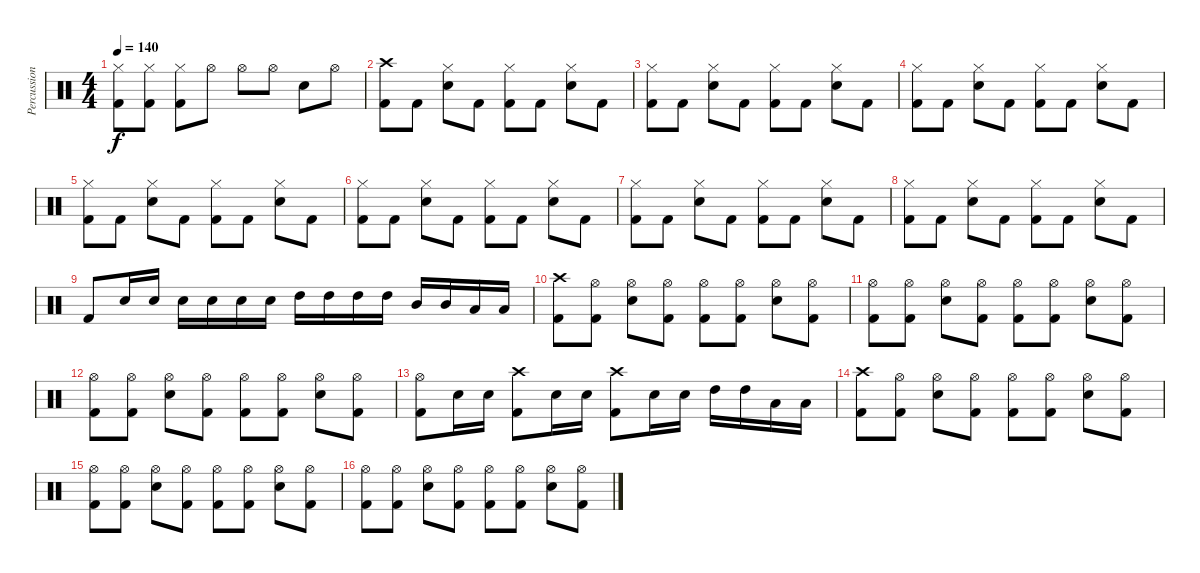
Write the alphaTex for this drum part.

\track ("Percussion" "Percussion") {instrument percussion}
\staff {score}
\articulation defaults
\ts (4 4)
\tempo 140
\clef neutral
\ks c
("Hi-Hat (closed)" "Kick (hit) 2").8{dy f} ("Hi-Hat (closed)" "Kick (hit) 2").8 ("Hi-Hat (closed)" "Kick (hit) 2").8 "Hi-Hat (open)".8 "Hi-Hat (open)".8 "Hi-Hat (open)".8 "Electric Snare (hit)".8 "Hi-Hat (open)".8 |
("Crash high (hit)" "Kick (hit) 2").8 "Kick (hit) 2".8 ("Hi-Hat (closed)" "Electric Snare (hit)").8 "Kick (hit) 2".8 ("Hi-Hat (closed)" "Kick (hit) 2").8 "Kick (hit) 2".8 ("Hi-Hat (closed)" "Electric Snare (hit)").8 "Kick (hit) 2".8 |
("Hi-Hat (closed)" "Kick (hit) 2").8 "Kick (hit) 2".8 ("Hi-Hat (closed)" "Electric Snare (hit)").8 "Kick (hit) 2".8 ("Hi-Hat (closed)" "Kick (hit) 2").8 "Kick (hit) 2".8 ("Hi-Hat (closed)" "Electric Snare (hit)").8 "Kick (hit) 2".8 |
("Hi-Hat (closed)" "Kick (hit) 2").8 "Kick (hit) 2".8 ("Hi-Hat (closed)" "Electric Snare (hit)").8 "Kick (hit) 2".8 ("Hi-Hat (closed)" "Kick (hit) 2").8 "Kick (hit) 2".8 ("Hi-Hat (closed)" "Electric Snare (hit)").8 "Kick (hit) 2".8 |
("Hi-Hat (closed)" "Kick (hit) 2").8 "Kick (hit) 2".8 ("Hi-Hat (closed)" "Electric Snare (hit)").8 "Kick (hit) 2".8 ("Hi-Hat (closed)" "Kick (hit) 2").8 "Kick (hit) 2".8 ("Hi-Hat (closed)" "Electric Snare (hit)").8 "Kick (hit) 2".8 |
("Hi-Hat (closed)" "Kick (hit) 2").8 "Kick (hit) 2".8 ("Hi-Hat (closed)" "Electric Snare (hit)").8 "Kick (hit) 2".8 ("Hi-Hat (closed)" "Kick (hit) 2").8 "Kick (hit) 2".8 ("Hi-Hat (closed)" "Electric Snare (hit)").8 "Kick (hit) 2".8 |
("Hi-Hat (closed)" "Kick (hit) 2").8 "Kick (hit) 2".8 ("Hi-Hat (closed)" "Electric Snare (hit)").8 "Kick (hit) 2".8 ("Hi-Hat (closed)" "Kick (hit) 2").8 "Kick (hit) 2".8 ("Hi-Hat (closed)" "Electric Snare (hit)").8 "Kick (hit) 2".8 |
("Hi-Hat (closed)" "Kick (hit) 2").8 "Kick (hit) 2".8 ("Hi-Hat (closed)" "Electric Snare (hit)").8 "Kick (hit) 2".8 ("Hi-Hat (closed)" "Kick (hit) 2").8 "Kick (hit) 2".8 ("Hi-Hat (closed)" "Electric Snare (hit)").8 "Kick (hit) 2".8 |
"Kick (hit) 2".8 "Electric Snare (hit)".16 "Electric Snare (hit)".16 "Electric Snare (hit)".16 "Electric Snare (hit)".16 "Electric Snare (hit)".16 "Electric Snare (hit)".16 "High Tom (hit)".16 "High Tom (hit)".16 "High Tom (hit)".16 "High Tom (hit)".16 "Mid Tom (hit)".16 "Mid Tom (hit)".16 "Low Tom (hit)".16 "Low Tom (hit)".16 |
("Crash high (hit)" "Kick (hit) 2").8 ("Hi-Hat (open)" "Kick (hit) 2").8 ("Hi-Hat (open)" "Electric Snare (hit)").8 ("Hi-Hat (open)" "Kick (hit) 2").8 ("Hi-Hat (open)" "Kick (hit) 2").8 ("Hi-Hat (open)" "Kick (hit) 2").8 ("Hi-Hat (open)" "Electric Snare (hit)").8 ("Hi-Hat (open)" "Kick (hit) 2").8 |
("Hi-Hat (open)" "Kick (hit) 2").8 ("Hi-Hat (open)" "Kick (hit) 2").8 ("Hi-Hat (open)" "Electric Snare (hit)").8 ("Hi-Hat (open)" "Kick (hit) 2").8 ("Hi-Hat (open)" "Kick (hit) 2").8 ("Hi-Hat (open)" "Kick (hit) 2").8 ("Hi-Hat (open)" "Electric Snare (hit)").8 ("Hi-Hat (open)" "Kick (hit) 2").8 |
("Hi-Hat (open)" "Kick (hit) 2").8 ("Hi-Hat (open)" "Kick (hit) 2").8 ("Hi-Hat (open)" "Electric Snare (hit)").8 ("Hi-Hat (open)" "Kick (hit) 2").8 ("Hi-Hat (open)" "Kick (hit) 2").8 ("Hi-Hat (open)" "Kick (hit) 2").8 ("Hi-Hat (open)" "Electric Snare (hit)").8 ("Hi-Hat (open)" "Kick (hit) 2").8 |
("Hi-Hat (open)" "Kick (hit) 2").8 "Electric Snare (hit)".16 "Electric Snare (hit)".16 ("Crash high (hit)" "Kick (hit) 2").8 "Electric Snare (hit)".16 "Electric Snare (hit)".16 ("Crash high (hit)" "Kick (hit) 2").8 "Electric Snare (hit)".16 "Electric Snare (hit)".16 "High Tom (hit)".16 "High Tom (hit)".16 "Low Tom (hit)".16 "Low Tom (hit)".16 |
("Crash high (hit)" "Kick (hit) 2").8 ("Hi-Hat (open)" "Kick (hit) 2").8 ("Hi-Hat (open)" "Electric Snare (hit)").8 ("Hi-Hat (open)" "Kick (hit) 2").8 ("Hi-Hat (open)" "Kick (hit) 2").8 ("Hi-Hat (open)" "Kick (hit) 2").8 ("Hi-Hat (open)" "Electric Snare (hit)").8 ("Hi-Hat (open)" "Kick (hit) 2").8 |
("Hi-Hat (open)" "Kick (hit) 2").8 ("Hi-Hat (open)" "Kick (hit) 2").8 ("Hi-Hat (open)" "Electric Snare (hit)").8 ("Hi-Hat (open)" "Kick (hit) 2").8 ("Hi-Hat (open)" "Kick (hit) 2").8 ("Hi-Hat (open)" "Kick (hit) 2").8 ("Hi-Hat (open)" "Electric Snare (hit)").8 ("Hi-Hat (open)" "Kick (hit) 2").8 |
("Hi-Hat (open)" "Kick (hit) 2").8 ("Hi-Hat (open)" "Kick (hit) 2").8 ("Hi-Hat (open)" "Electric Snare (hit)").8 ("Hi-Hat (open)" "Kick (hit) 2").8 ("Hi-Hat (open)" "Kick (hit) 2").8 ("Hi-Hat (open)" "Kick (hit) 2").8 ("Hi-Hat (open)" "Electric Snare (hit)").8 ("Hi-Hat (open)" "Kick (hit) 2").8
